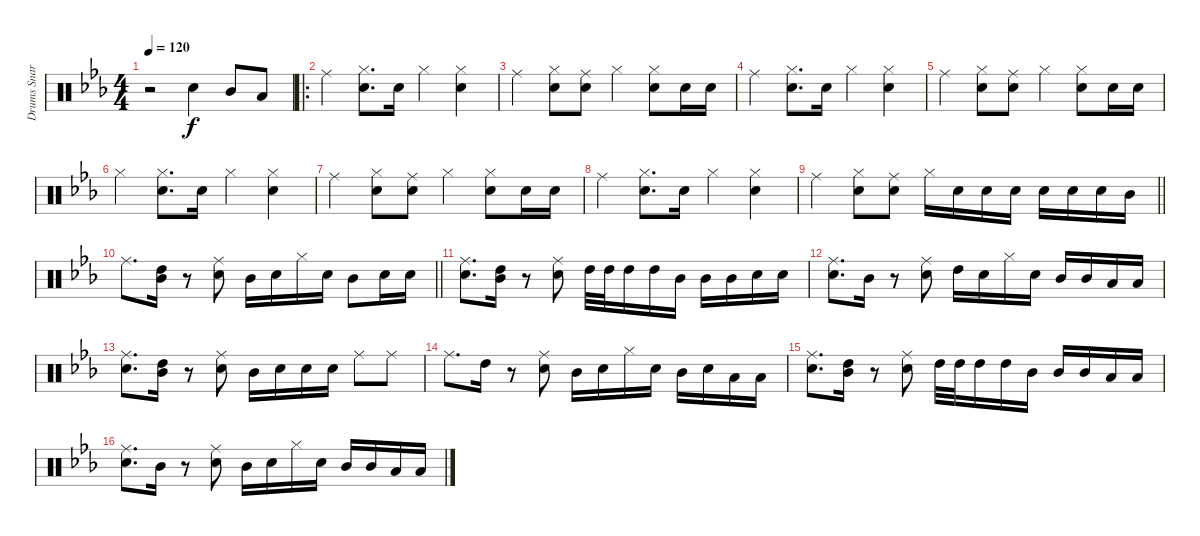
\track ("Drums Snare" "Drums Snar") {instrument percussion}
\staff {score}
\articulation defaults
\ts (4 4)
\tempo 120
\clef neutral
\ks eb
r.2{dy f} "Snare (hit) 2".4 "Mid Tom (hit)".8 "Low Tom (hit)".8 |
\ro "Ride (middle)".4
("Hi-Hat (closed)" "Snare (hit) 2").8{d} "Snare (hit) 2".16 "Hi-Hat (closed)".4 ("Hi-Hat (closed)" "Snare (hit) 2").4 |
"Ride (middle)".4 ("Hi-Hat (closed)" "Snare (hit) 2").8 ("Ride (middle)" "Snare (hit) 2").8 "Hi-Hat (closed)".4 ("Hi-Hat (closed)" "Snare (hit) 2").8 "Snare (hit) 2".16 "Snare (hit) 2".16 |
"Ride (middle)".4 ("Hi-Hat (closed)" "Snare (hit) 2").8{d} "Snare (hit) 2".16 "Hi-Hat (closed)".4 ("Hi-Hat (closed)" "Snare (hit) 2").4 |
"Ride (middle)".4 ("Hi-Hat (closed)" "Snare (hit) 2").8 ("Ride (middle)" "Snare (hit) 2").8 "Hi-Hat (closed)".4 ("Hi-Hat (closed)" "Snare (hit) 2").8 "Snare (hit) 2".16 "Snare (hit) 2".16 |
"Hi-Hat (closed)".4 ("Hi-Hat (closed)" "Snare (hit) 2").8{d} "Snare (hit) 2".16 "Hi-Hat (closed)".4 ("Hi-Hat (closed)" "Snare (hit) 2").4 |
"Ride (middle)".4 ("Hi-Hat (closed)" "Snare (hit) 2").8 ("Ride (middle)" "Snare (hit) 2").8 "Hi-Hat (closed)".4 ("Hi-Hat (closed)" "Snare (hit) 2").8 "Snare (hit) 2".16 "Snare (hit) 2".16 |
"Ride (middle)".4 ("Hi-Hat (closed)" "Snare (hit) 2").8{d} "Snare (hit) 2".16 "Hi-Hat (closed)".4 ("Hi-Hat (closed)" "Snare (hit) 2").4 |
\barLineRight lightlight "Ride (middle)".4
("Hi-Hat (closed)" "Snare (hit) 2").8 ("Ride (middle)" "Snare (hit) 2").8 "Hi-Hat (closed)".16 "Snare (hit) 2".16 "Snare (hit) 2".16 "Snare (hit) 2".16 "Snare (hit) 2".16 "Snare (hit) 2".16 "Snare (hit) 2".16 "Mid Tom (hit)".16 |
\barLineRight lightlight "Ride (middle)".8{d}
("High Tom (hit)" "Mid Tom (hit)").16 r.8 ("Ride (middle)" "Snare (hit) 2").8 "Mid Tom (hit)".16 "Snare (hit) 2".16 "Hi-Hat (closed)".16 "Snare (hit) 2".16 "Mid Tom (hit)".8 "Snare (hit) 2".16 "Snare (hit) 2".16 |
("Ride (middle)" "Snare (hit) 2").8{d} ("Mid Tom (hit)" "High Tom (hit)").16 r.8 ("Ride (middle)" "Snare (hit) 2").8 "High Tom (hit)".32 "High Tom (hit)".32 "High Tom (hit)".16 "High Tom (hit)".16 "Mid Tom (hit)".16 "Mid Tom (hit)".16 "Mid Tom (hit)".16 "Snare (hit) 2".16 "Snare (hit) 2".16 |
("Ride (middle)" "Snare (hit) 2").8{d} "Mid Tom (hit)".16 r.8 ("Ride (middle)" "Snare (hit) 2").8 "High Tom (hit)".16 "Snare (hit) 2".16 "Hi-Hat (closed)".16 "Snare (hit) 2".16 "Mid Tom (hit)".16 "Mid Tom (hit)".16 "Low Tom (hit)".16 "Low Tom (hit)".16 |
("Ride (middle)" "Snare (hit) 2").8{d} ("High Tom (hit)" "Mid Tom (hit)").16 r.8 ("Ride (middle)" "Snare (hit) 2").8 "Mid Tom (hit)".16 "Snare (hit) 2".16 "Snare (hit) 2".16 "Snare (hit) 2".16 "Ride (middle)".8 "Ride (middle)".8 |
"Ride (middle)".8{d} "High Tom (hit)".16 r.8 ("Ride (middle)" "Snare (hit) 2").8 "Mid Tom (hit)".16 "Snare (hit) 2".16 "Hi-Hat (closed)".16 "Snare (hit) 2".16 "Mid Tom (hit)".16 "Snare (hit) 2".16 "Low Tom (hit)".16 "Low Tom (hit)".16 |
("Ride (middle)" "Snare (hit) 2").8{d} ("High Tom (hit)" "Mid Tom (hit)").16 r.8 ("Ride (middle)" "Snare (hit) 2").8 "High Tom (hit)".32 "High Tom (hit)".32 "High Tom (hit)".16 "High Tom (hit)".16 "Mid Tom (hit)".16 "Mid Tom (hit)".16 "Mid Tom (hit)".16 "Low Tom (hit)".16 "Low Tom (hit)".16 |
("Ride (middle)" "Snare (hit) 2").8{d} "Mid Tom (hit)".16 r.8 ("Ride (middle)" "Snare (hit) 2").8 "Mid Tom (hit)".16 "Snare (hit) 2".16 "Hi-Hat (closed)".16 "Snare (hit) 2".16 "Mid Tom (hit)".16 "Mid Tom (hit)".16 "Low Tom (hit)".16 "Low Tom (hit)".16
